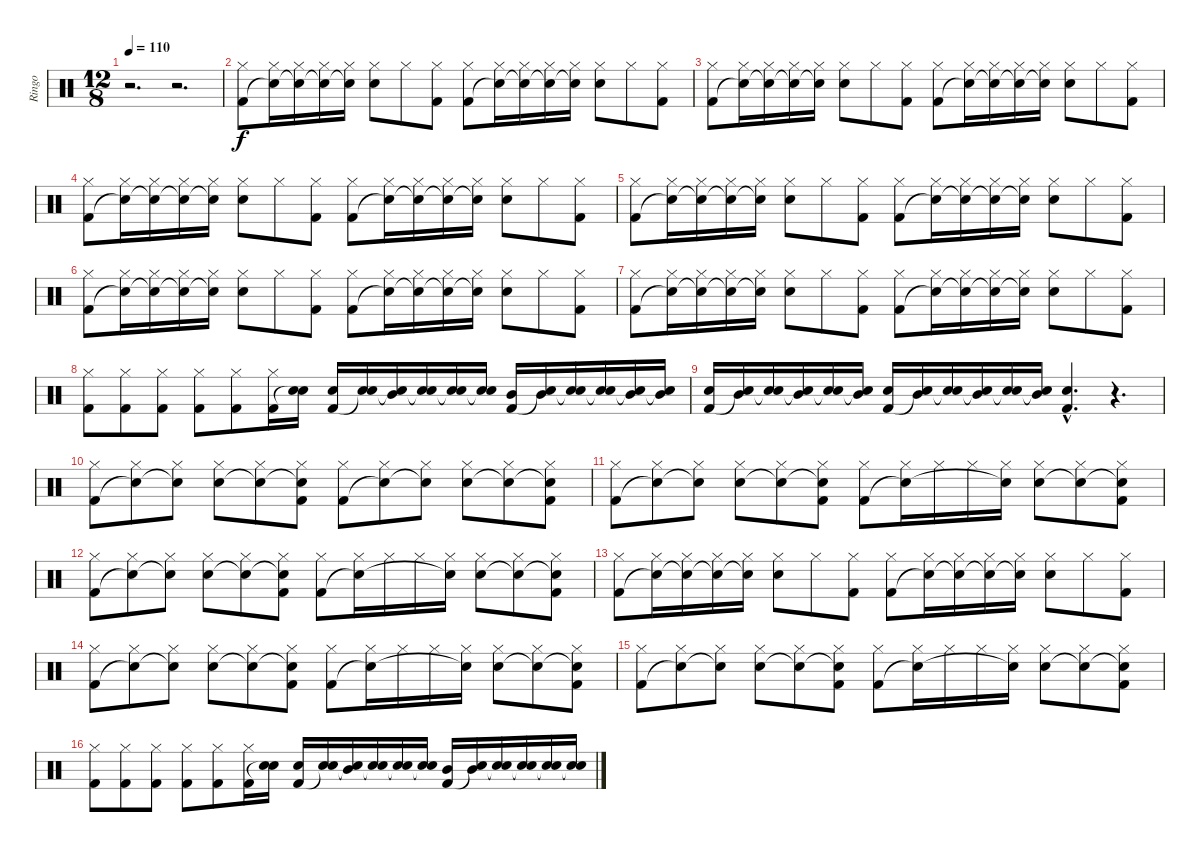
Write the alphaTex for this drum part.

\track ("Ringo" "Ringo") {instrument percussion}
\staff {score}
\articulation defaults
\ts (12 8)
\tempo 110
\clef neutral
\ks c
r.2{d dy f} r.2{d} |
("Hi-Hat (closed)" "Kick (hit) 2").8 ("Hi-Hat (closed)" "Snare (hit)"{t}).16 ("Hi-Hat (closed)" "Snare (hit)"{t}).16 ("Hi-Hat (closed)" "Snare (hit)"{t}).16 ("Hi-Hat (closed)" "Snare (hit)"{t}).16 ("Hi-Hat (closed)" "Snare (hit) 2").8 "Hi-Hat (closed)".8 ("Hi-Hat (closed)" "Kick (hit) 2").8 ("Hi-Hat (closed)" "Kick (hit) 2").8 ("Hi-Hat (closed)" "Snare (hit)"{t}).16 ("Hi-Hat (closed)" "Snare (hit)"{t}).16 ("Hi-Hat (closed)" "Snare (hit)"{t}).16 ("Hi-Hat (closed)" "Snare (hit)"{t}).16 ("Hi-Hat (closed)" "Snare (hit) 2").8 "Hi-Hat (closed)".8 ("Hi-Hat (closed)" "Kick (hit) 2").8 |
("Hi-Hat (closed)" "Kick (hit) 2").8 ("Hi-Hat (closed)" "Snare (hit)"{t}).16 ("Hi-Hat (closed)" "Snare (hit)"{t}).16 ("Hi-Hat (closed)" "Snare (hit)"{t}).16 ("Hi-Hat (closed)" "Snare (hit)"{t}).16 ("Hi-Hat (closed)" "Snare (hit) 2").8 "Hi-Hat (closed)".8 ("Hi-Hat (closed)" "Kick (hit) 2").8 ("Hi-Hat (closed)" "Kick (hit) 2").8 ("Hi-Hat (closed)" "Snare (hit)"{t}).16 ("Hi-Hat (closed)" "Snare (hit)"{t}).16 ("Hi-Hat (closed)" "Snare (hit)"{t}).16 ("Hi-Hat (closed)" "Snare (hit)"{t}).16 ("Hi-Hat (closed)" "Snare (hit) 2").8 "Hi-Hat (closed)".8 ("Hi-Hat (closed)" "Kick (hit) 2").8 |
("Hi-Hat (closed)" "Kick (hit) 2").8 ("Hi-Hat (closed)" "Snare (hit)"{t}).16 ("Hi-Hat (closed)" "Snare (hit)"{t}).16 ("Hi-Hat (closed)" "Snare (hit)"{t}).16 ("Hi-Hat (closed)" "Snare (hit)"{t}).16 ("Hi-Hat (closed)" "Snare (hit) 2").8 "Hi-Hat (closed)".8 ("Hi-Hat (closed)" "Kick (hit) 2").8 ("Hi-Hat (closed)" "Kick (hit) 2").8 ("Hi-Hat (closed)" "Snare (hit)"{t}).16 ("Hi-Hat (closed)" "Snare (hit)"{t}).16 ("Hi-Hat (closed)" "Snare (hit)"{t}).16 ("Hi-Hat (closed)" "Snare (hit)"{t}).16 ("Hi-Hat (closed)" "Snare (hit) 2").8 "Hi-Hat (closed)".8 ("Hi-Hat (closed)" "Kick (hit) 2").8 |
("Hi-Hat (closed)" "Kick (hit) 2").8 ("Hi-Hat (closed)" "Snare (hit)"{t}).16 ("Hi-Hat (closed)" "Snare (hit)"{t}).16 ("Hi-Hat (closed)" "Snare (hit)"{t}).16 ("Hi-Hat (closed)" "Snare (hit)"{t}).16 ("Hi-Hat (closed)" "Snare (hit) 2").8 "Hi-Hat (closed)".8 ("Hi-Hat (closed)" "Kick (hit) 2").8 ("Hi-Hat (closed)" "Kick (hit) 2").8 ("Hi-Hat (closed)" "Snare (hit)"{t}).16 ("Hi-Hat (closed)" "Snare (hit)"{t}).16 ("Hi-Hat (closed)" "Snare (hit)"{t}).16 ("Hi-Hat (closed)" "Snare (hit)"{t}).16 ("Hi-Hat (closed)" "Snare (hit) 2").8 "Hi-Hat (closed)".8 ("Hi-Hat (closed)" "Kick (hit) 2").8 |
("Hi-Hat (closed)" "Kick (hit) 2").8 ("Hi-Hat (closed)" "Snare (hit)"{t}).16 ("Hi-Hat (closed)" "Snare (hit)"{t}).16 ("Hi-Hat (closed)" "Snare (hit)"{t}).16 ("Hi-Hat (closed)" "Snare (hit)"{t}).16 ("Hi-Hat (closed)" "Snare (hit) 2").8 "Hi-Hat (closed)".8 ("Hi-Hat (closed)" "Kick (hit) 2").8 ("Hi-Hat (closed)" "Kick (hit) 2").8 ("Hi-Hat (closed)" "Snare (hit)"{t}).16 ("Hi-Hat (closed)" "Snare (hit)"{t}).16 ("Hi-Hat (closed)" "Snare (hit)"{t}).16 ("Hi-Hat (closed)" "Snare (hit)"{t}).16 ("Hi-Hat (closed)" "Snare (hit) 2").8 "Hi-Hat (closed)".8 ("Hi-Hat (closed)" "Kick (hit) 2").8 |
("Hi-Hat (closed)" "Kick (hit) 2").8 ("Hi-Hat (closed)" "Snare (hit)"{t}).16 ("Hi-Hat (closed)" "Snare (hit)"{t}).16 ("Hi-Hat (closed)" "Snare (hit)"{t}).16 ("Hi-Hat (closed)" "Snare (hit)"{t}).16 ("Hi-Hat (closed)" "Snare (hit) 2").8 "Hi-Hat (closed)".8 ("Hi-Hat (closed)" "Kick (hit) 2").8 ("Hi-Hat (closed)" "Kick (hit) 2").8 ("Hi-Hat (closed)" "Snare (hit)"{t}).16 ("Hi-Hat (closed)" "Snare (hit)"{t}).16 ("Hi-Hat (closed)" "Snare (hit)"{t}).16 ("Hi-Hat (closed)" "Snare (hit)"{t}).16 ("Hi-Hat (closed)" "Snare (hit) 2").8 "Hi-Hat (closed)".8 ("Hi-Hat (closed)" "Kick (hit) 2").8 |
("Hi-Hat (closed)" "Kick (hit) 2").8 ("Hi-Hat (closed)" "Kick (hit) 2").8 ("Hi-Hat (closed)" "Kick (hit) 2").8 ("Hi-Hat (closed)" "Kick (hit) 2").8 ("Hi-Hat (closed)" "Kick (hit) 2").8 ("Hi-Hat (closed)" "Kick (hit) 2").16 ("Snare (hit) 2" "Snare (hit)"{t}).16 ("Snare (hit) 2" "Kick (hit) 2").16 ("Snare (hit) 2" "Snare (hit)"{t}).16 ("Mid Tom (hit)" "Snare (hit)"{t}).16 ("Snare (hit) 2" "Snare (hit)"{t}).16 ("Snare (hit) 2" "Snare (hit)"{t}).16 ("Snare (hit) 2" "Snare (hit)"{t}).16 ("Mid Tom (hit)" "Kick (hit) 2").16 ("Mid Tom (hit)" "Snare (hit)"{t}).16 ("Snare (hit) 2" "Snare (hit)"{t}).16 ("Snare (hit) 2" "Snare (hit)"{t}).16 ("Mid Tom (hit)" "Snare (hit)"{t}).16 ("Mid Tom (hit)" "Snare (hit)"{t}).16 |
("Snare (hit) 2" "Kick (hit) 2").16 ("Mid Tom (hit)" "Snare (hit)"{t}).16 ("Snare (hit) 2" "Snare (hit)"{t}).16 ("Mid Tom (hit)" "Snare (hit)"{t}).16 ("Snare (hit) 2" "Snare (hit)"{t}).16 ("Mid Tom (hit)" "Snare (hit)"{t}).16 ("Snare (hit) 2" "Kick (hit) 2").16 ("Mid Tom (hit)" "Snare (hit)"{t}).16 ("Snare (hit) 2" "Snare (hit)"{t}).16 ("Mid Tom (hit)" "Snare (hit)"{t}).16 ("Snare (hit) 2" "Snare (hit)"{t}).16 ("Mid Tom (hit)" "Snare (hit)"{t}).16 ("Snare (hit) 2"{hac} "Kick (hit) 2"{hac}).4{d} r.4{d} |
("Hi-Hat (closed)" "Kick (hit) 2").8 ("Hi-Hat (closed)" "Snare (hit)"{t}).8 ("Hi-Hat (closed)" "Snare (hit)"{t}).8 ("Hi-Hat (closed)" "Snare (hit) 2").8 ("Hi-Hat (closed)" "Snare (hit)"{t}).8 ("Hi-Hat (closed)" "Snare (hit)"{t} "Kick (hit) 2").8 ("Hi-Hat (closed)" "Kick (hit) 2").8 ("Hi-Hat (closed)" "Snare (hit)"{t}).8 ("Hi-Hat (closed)" "Snare (hit)"{t}).8 ("Hi-Hat (closed)" "Snare (hit) 2").8 ("Hi-Hat (closed)" "Snare (hit)"{t}).8 ("Hi-Hat (closed)" "Snare (hit)"{t} "Kick (hit) 2").8 |
("Hi-Hat (closed)" "Kick (hit) 2").8 ("Hi-Hat (closed)" "Snare (hit)"{t}).8 ("Hi-Hat (closed)" "Snare (hit)"{t}).8 ("Hi-Hat (closed)" "Snare (hit) 2").8 ("Hi-Hat (closed)" "Snare (hit)"{t}).8 ("Hi-Hat (closed)" "Snare (hit)"{t} "Kick (hit) 2").8 ("Hi-Hat (closed)" "Kick (hit) 2").8 ("Hi-Hat (closed)" "Snare (hit)"{t}).16 "Hi-Hat (closed)".16 "Hi-Hat (closed)".16 ("Hi-Hat (closed)" "Snare (hit)"{t}).16 ("Hi-Hat (closed)" "Snare (hit) 2").8 ("Hi-Hat (closed)" "Snare (hit)"{t}).8 ("Hi-Hat (closed)" "Snare (hit)"{t} "Kick (hit) 2").8 |
("Hi-Hat (closed)" "Kick (hit) 2").8 ("Hi-Hat (closed)" "Snare (hit)"{t}).8 ("Hi-Hat (closed)" "Snare (hit)"{t}).8 ("Hi-Hat (closed)" "Snare (hit) 2").8 ("Hi-Hat (closed)" "Snare (hit)"{t}).8 ("Hi-Hat (closed)" "Snare (hit)"{t} "Kick (hit) 2").8 ("Hi-Hat (closed)" "Kick (hit) 2").8 ("Hi-Hat (closed)" "Snare (hit)"{t}).16 "Hi-Hat (closed)".16 "Hi-Hat (closed)".16 ("Hi-Hat (closed)" "Snare (hit)"{t}).16 ("Hi-Hat (closed)" "Snare (hit) 2").8 ("Hi-Hat (closed)" "Snare (hit)"{t}).8 ("Hi-Hat (closed)" "Snare (hit)"{t} "Kick (hit) 2").8 |
("Hi-Hat (closed)" "Kick (hit) 2").8 ("Hi-Hat (closed)" "Snare (hit)"{t}).16 ("Hi-Hat (closed)" "Snare (hit)"{t}).16 ("Hi-Hat (closed)" "Snare (hit)"{t}).16 ("Hi-Hat (closed)" "Snare (hit)"{t}).16 ("Hi-Hat (closed)" "Snare (hit) 2").8 "Hi-Hat (closed)".8 ("Hi-Hat (closed)" "Kick (hit) 2").8 ("Hi-Hat (closed)" "Kick (hit) 2").8 ("Hi-Hat (closed)" "Snare (hit)"{t}).16 ("Hi-Hat (closed)" "Snare (hit)"{t}).16 ("Hi-Hat (closed)" "Snare (hit)"{t}).16 ("Hi-Hat (closed)" "Snare (hit)"{t}).16 ("Hi-Hat (closed)" "Snare (hit) 2").8 "Hi-Hat (closed)".8 ("Hi-Hat (closed)" "Kick (hit) 2").8 |
("Hi-Hat (closed)" "Kick (hit) 2").8 ("Hi-Hat (closed)" "Snare (hit)"{t}).8 ("Hi-Hat (closed)" "Snare (hit)"{t}).8 ("Hi-Hat (closed)" "Snare (hit) 2").8 ("Hi-Hat (closed)" "Snare (hit)"{t}).8 ("Hi-Hat (closed)" "Snare (hit)"{t} "Kick (hit) 2").8 ("Hi-Hat (closed)" "Kick (hit) 2").8 ("Hi-Hat (closed)" "Snare (hit)"{t}).16 "Hi-Hat (closed)".16 "Hi-Hat (closed)".16 ("Hi-Hat (closed)" "Snare (hit)"{t}).16 ("Hi-Hat (closed)" "Snare (hit) 2").8 ("Hi-Hat (closed)" "Snare (hit)"{t}).8 ("Hi-Hat (closed)" "Snare (hit)"{t} "Kick (hit) 2").8 |
("Hi-Hat (closed)" "Kick (hit) 2").8 ("Hi-Hat (closed)" "Snare (hit)"{t}).8 ("Hi-Hat (closed)" "Snare (hit)"{t}).8 ("Hi-Hat (closed)" "Snare (hit) 2").8 ("Hi-Hat (closed)" "Snare (hit)"{t}).8 ("Hi-Hat (closed)" "Snare (hit)"{t} "Kick (hit) 2").8 ("Hi-Hat (closed)" "Kick (hit) 2").8 ("Hi-Hat (closed)" "Snare (hit)"{t}).16 "Hi-Hat (closed)".16 "Hi-Hat (closed)".16 ("Hi-Hat (closed)" "Snare (hit)"{t}).16 ("Hi-Hat (closed)" "Snare (hit) 2").8 ("Hi-Hat (closed)" "Snare (hit)"{t}).8 ("Hi-Hat (closed)" "Snare (hit)"{t} "Kick (hit) 2").8 |
("Hi-Hat (closed)" "Kick (hit) 2").8 ("Hi-Hat (closed)" "Kick (hit) 2").8 ("Hi-Hat (closed)" "Kick (hit) 2").8 ("Hi-Hat (closed)" "Kick (hit) 2").8 ("Hi-Hat (closed)" "Kick (hit) 2").8 ("Hi-Hat (closed)" "Kick (hit) 2").16 ("Snare (hit) 2" "Snare (hit)"{t}).16 ("Snare (hit) 2" "Kick (hit) 2").16 ("Snare (hit) 2" "Snare (hit)"{t}).16 ("Mid Tom (hit)" "Snare (hit)"{t}).16 ("Snare (hit) 2" "Snare (hit)"{t}).16 ("Snare (hit) 2" "Snare (hit)"{t}).16 ("Snare (hit) 2" "Snare (hit)"{t}).16 ("Mid Tom (hit)" "Kick (hit) 2").16 ("Mid Tom (hit)" "Snare (hit)"{t}).16 ("Snare (hit) 2" "Snare (hit)"{t}).16 ("Snare (hit) 2" "Snare (hit)"{t}).16 ("Snare (hit) 2" "Snare (hit)"{t}).16 ("Snare (hit) 2" "Snare (hit)"{t}).16
